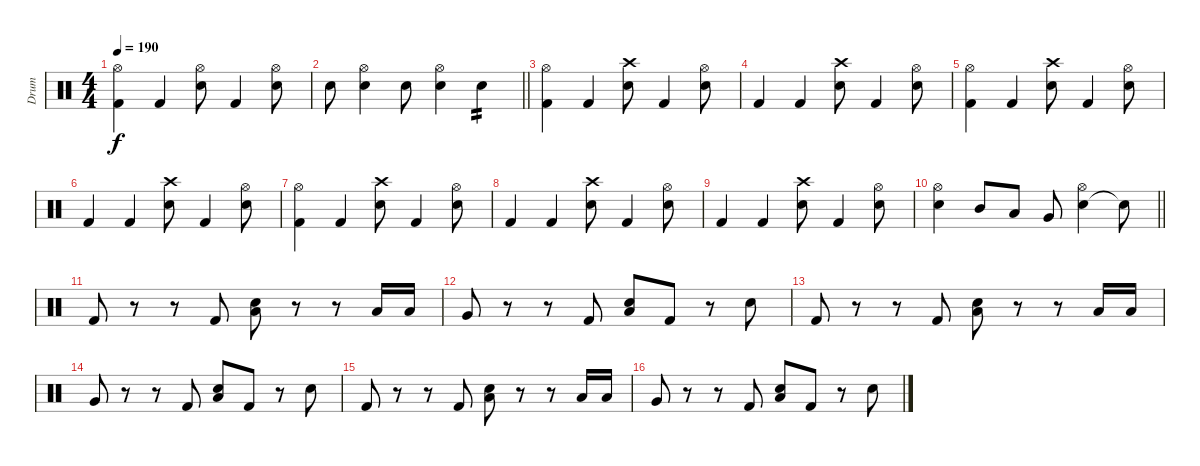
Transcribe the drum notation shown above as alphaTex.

\track ("Drum" "Drum") {instrument percussion}
\staff {score}
\articulation defaults
\ts (4 4)
\tempo 190
\clef neutral
\ks c
("Kick (hit) 2" "Hi-Hat (open)").4{dy f} "Kick (hit) 2".4 ("Snare (hit) 2" "Hi-Hat (open)").8 "Kick (hit) 2".4 ("Snare (hit) 2" "Hi-Hat (open)").8 |
\barLineRight lightlight "Snare (hit) 2".8
("Snare (hit) 2" "Hi-Hat (open)").4 "Snare (hit) 2".8 ("Snare (hit) 2" "Hi-Hat (open)").4 "Snare (hit) 2".4{tp 2} |
("Kick (hit) 2" "Hi-Hat (open)").4 "Kick (hit) 2".4 ("Snare (hit) 2" "Crash high (hit)").8 "Kick (hit) 2".4 ("Snare (hit) 2" "Hi-Hat (open)").8 |
"Kick (hit) 2".4 "Kick (hit) 2".4 ("Snare (hit) 2" "Crash high (hit)").8 "Kick (hit) 2".4 ("Snare (hit) 2" "Hi-Hat (open)").8 |
("Kick (hit) 2" "Hi-Hat (open)").4 "Kick (hit) 2".4 ("Snare (hit) 2" "Crash high (hit)").8 "Kick (hit) 2".4 ("Snare (hit) 2" "Hi-Hat (open)").8 |
"Kick (hit) 2".4 "Kick (hit) 2".4 ("Snare (hit) 2" "Crash high (hit)").8 "Kick (hit) 2".4 ("Snare (hit) 2" "Hi-Hat (open)").8 |
("Kick (hit) 2" "Hi-Hat (open)").4 "Kick (hit) 2".4 ("Snare (hit) 2" "Crash high (hit)").8 "Kick (hit) 2".4 ("Snare (hit) 2" "Hi-Hat (open)").8 |
"Kick (hit) 2".4 "Kick (hit) 2".4 ("Snare (hit) 2" "Crash high (hit)").8 "Kick (hit) 2".4 ("Snare (hit) 2" "Hi-Hat (open)").8 |
"Kick (hit) 2".4 "Kick (hit) 2".4 ("Snare (hit) 2" "Crash high (hit)").8 "Kick (hit) 2".4 ("Snare (hit) 2" "Hi-Hat (open)").8 |
\barLineRight lightlight
("Snare (hit) 2" "Hi-Hat (open)").4 "Mid Tom (hit)".8 "Low Tom (hit)".8 "Very Low Tom (hit)".8 ("Snare (hit) 2" "Hi-Hat (open)").4 "Snare (hit)"{t}.8 |
\section ("" "")
"Kick (hit) 2".8 r.8 r.8 "Kick (hit) 2".8 ("Snare (hit) 2" "Low Floor Tom (hit)").8 r.8 r.8 "Low Tom (hit)".16 "Low Tom (hit)".16 |
"Very Low Tom (hit)".8 r.8 r.8 "Kick (hit) 2".8 ("Snare (hit) 2" "Low Floor Tom (hit)").8 "Kick (hit) 2".8 r.8 "Snare (hit) 2".8 |
"Kick (hit) 2".8 r.8 r.8 "Kick (hit) 2".8 ("Snare (hit) 2" "Low Floor Tom (hit)").8 r.8 r.8 "Low Tom (hit)".16 "Low Tom (hit)".16 |
"Very Low Tom (hit)".8 r.8 r.8 "Kick (hit) 2".8 ("Snare (hit) 2" "Low Floor Tom (hit)").8 "Kick (hit) 2".8 r.8 "Snare (hit) 2".8 |
"Kick (hit) 2".8 r.8 r.8 "Kick (hit) 2".8 ("Snare (hit) 2" "Low Floor Tom (hit)").8 r.8 r.8 "Low Tom (hit)".16 "Low Tom (hit)".16 |
"Very Low Tom (hit)".8 r.8 r.8 "Kick (hit) 2".8 ("Snare (hit) 2" "Low Floor Tom (hit)").8 "Kick (hit) 2".8 r.8 "Snare (hit) 2".8
